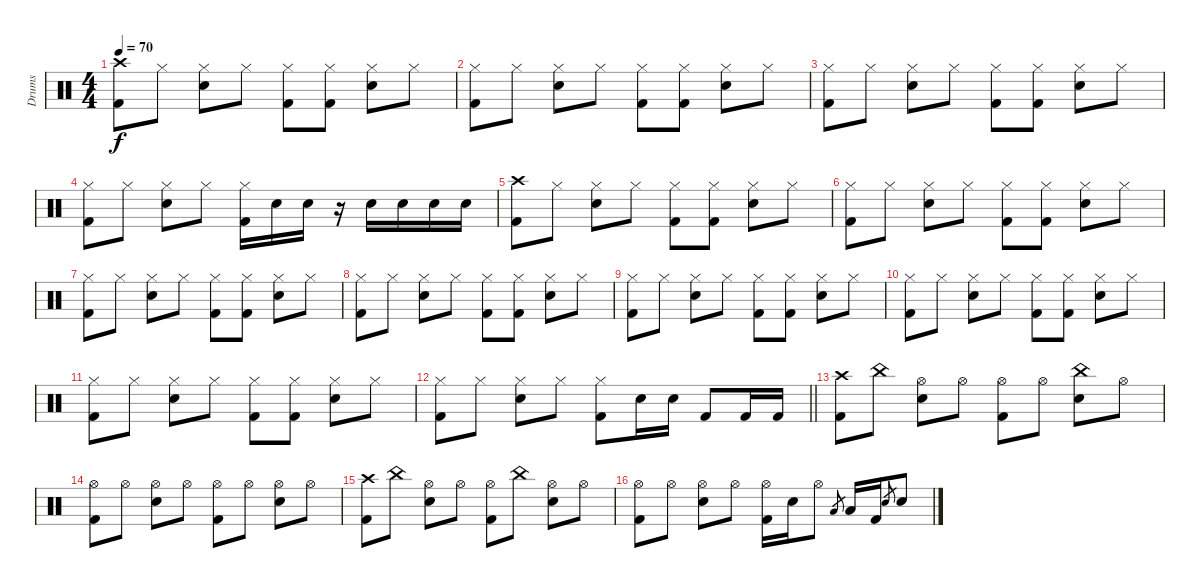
\track ("Drums" "Drums") {instrument percussion}
\staff {score}
\articulation defaults
\ts (4 4)
\tempo 70
\clef neutral
\ks c
("Crash high (hit)" "Kick (hit) 2").8{dy f} "Hi-Hat (closed)".8 ("Hi-Hat (closed)" "Electric Snare (hit)").8 "Hi-Hat (closed)".8 ("Hi-Hat (closed)" "Kick (hit) 2").8 ("Hi-Hat (closed)" "Kick (hit) 2").8 ("Hi-Hat (closed)" "Electric Snare (hit)").8 "Hi-Hat (closed)".8 |
("Hi-Hat (closed)" "Kick (hit) 2").8 "Hi-Hat (closed)".8 ("Hi-Hat (closed)" "Electric Snare (hit)").8 "Hi-Hat (closed)".8 ("Hi-Hat (closed)" "Kick (hit) 2").8 ("Hi-Hat (closed)" "Kick (hit) 2").8 ("Hi-Hat (closed)" "Electric Snare (hit)").8 "Hi-Hat (closed)".8 |
("Hi-Hat (closed)" "Kick (hit) 2").8 "Hi-Hat (closed)".8 ("Hi-Hat (closed)" "Electric Snare (hit)").8 "Hi-Hat (closed)".8 ("Hi-Hat (closed)" "Kick (hit) 2").8 ("Hi-Hat (closed)" "Kick (hit) 2").8 ("Hi-Hat (closed)" "Electric Snare (hit)").8 "Hi-Hat (closed)".8 |
("Hi-Hat (closed)" "Kick (hit) 2").8 "Hi-Hat (closed)".8 ("Hi-Hat (closed)" "Electric Snare (hit)").8 "Hi-Hat (closed)".8 ("Hi-Hat (closed)" "Kick (hit) 2").16 "Electric Snare (hit)".16 "Electric Snare (hit)".16 r.16 "Electric Snare (hit)".16 "Electric Snare (hit)".16 "Electric Snare (hit)".16 "Electric Snare (hit)".16 |
("Crash high (hit)" "Kick (hit) 2").8 "Hi-Hat (closed)".8 ("Hi-Hat (closed)" "Electric Snare (hit)").8 "Hi-Hat (closed)".8 ("Hi-Hat (closed)" "Kick (hit) 2").8 ("Hi-Hat (closed)" "Kick (hit) 2").8 ("Hi-Hat (closed)" "Electric Snare (hit)").8 "Hi-Hat (closed)".8 |
("Hi-Hat (closed)" "Kick (hit) 2").8 "Hi-Hat (closed)".8 ("Hi-Hat (closed)" "Electric Snare (hit)").8 "Hi-Hat (closed)".8 ("Hi-Hat (closed)" "Kick (hit) 2").8 ("Hi-Hat (closed)" "Kick (hit) 2").8 ("Hi-Hat (closed)" "Electric Snare (hit)").8 "Hi-Hat (closed)".8 |
("Hi-Hat (closed)" "Kick (hit) 2").8 "Hi-Hat (closed)".8 ("Hi-Hat (closed)" "Electric Snare (hit)").8 "Hi-Hat (closed)".8 ("Hi-Hat (closed)" "Kick (hit) 2").8 ("Hi-Hat (closed)" "Kick (hit) 2").8 ("Hi-Hat (closed)" "Electric Snare (hit)").8 "Hi-Hat (closed)".8 |
("Hi-Hat (closed)" "Kick (hit) 2").8 "Hi-Hat (closed)".8 ("Hi-Hat (closed)" "Electric Snare (hit)").8 "Hi-Hat (closed)".8 ("Hi-Hat (closed)" "Kick (hit) 2").8 ("Hi-Hat (closed)" "Kick (hit) 2").8 ("Hi-Hat (closed)" "Electric Snare (hit)").8 "Hi-Hat (closed)".8 |
("Hi-Hat (closed)" "Kick (hit) 2").8 "Hi-Hat (closed)".8 ("Hi-Hat (closed)" "Electric Snare (hit)").8 "Hi-Hat (closed)".8 ("Hi-Hat (closed)" "Kick (hit) 2").8 ("Hi-Hat (closed)" "Kick (hit) 2").8 ("Hi-Hat (closed)" "Electric Snare (hit)").8 "Hi-Hat (closed)".8 |
("Hi-Hat (closed)" "Kick (hit) 2").8 "Hi-Hat (closed)".8 ("Hi-Hat (closed)" "Electric Snare (hit)").8 "Hi-Hat (closed)".8 ("Hi-Hat (closed)" "Kick (hit) 2").8 ("Hi-Hat (closed)" "Kick (hit) 2").8 ("Hi-Hat (closed)" "Electric Snare (hit)").8 "Hi-Hat (closed)".8 |
("Hi-Hat (closed)" "Kick (hit) 2").8 "Hi-Hat (closed)".8 ("Hi-Hat (closed)" "Electric Snare (hit)").8 "Hi-Hat (closed)".8 ("Hi-Hat (closed)" "Kick (hit) 2").8 ("Hi-Hat (closed)" "Kick (hit) 2").8 ("Hi-Hat (closed)" "Electric Snare (hit)").8 "Hi-Hat (closed)".8 |
\barLineRight lightlight
("Hi-Hat (closed)" "Kick (hit) 2").8 "Hi-Hat (closed)".8 ("Hi-Hat (closed)" "Electric Snare (hit)").8 "Hi-Hat (closed)".8 ("Hi-Hat (closed)" "Kick (hit) 2").8 "Electric Snare (hit)".16 "Electric Snare (hit)".16 "Kick (hit) 2".8 "Kick (hit) 2".16 "Kick (hit) 2".16 |
("Crash high (hit)" "Kick (hit) 2").8 "China (hit)".8 ("Hi-Hat (open)" "Electric Snare (hit)").8 "Hi-Hat (open)".8 ("Hi-Hat (open)" "Kick (hit) 2").8 "Hi-Hat (open)".8 ("China (hit)" "Electric Snare (hit)").8 "Hi-Hat (open)".8 |
("Hi-Hat (open)" "Kick (hit) 2").8 "Hi-Hat (open)".8 ("Hi-Hat (open)" "Electric Snare (hit)").8 "Hi-Hat (open)".8 ("Hi-Hat (open)" "Kick (hit) 2").8 "Hi-Hat (open)".8 ("Hi-Hat (open)" "Electric Snare (hit)").8 "Hi-Hat (open)".8 |
("Crash high (hit)" "Kick (hit) 2").8 "China (hit)".8 ("Hi-Hat (open)" "Electric Snare (hit)").8 "Hi-Hat (open)".8 ("Hi-Hat (open)" "Kick (hit) 2").8 "China (hit)".8 ("Hi-Hat (open)" "Electric Snare (hit)").8 "Hi-Hat (open)".8 |
("Hi-Hat (open)" "Kick (hit) 2").8 "Hi-Hat (open)".8 ("Hi-Hat (open)" "Electric Snare (hit)").8 "Hi-Hat (open)".8 ("Hi-Hat (open)" "Kick (hit) 2").16 "Electric Snare (hit)".16 "Hi-Hat (open)".8 "Low Tom (hit)".8{gr} "Low Tom (hit)".16 "Kick (hit) 2".16 "Electric Snare (hit)".8{gr} "Electric Snare (hit)".8
